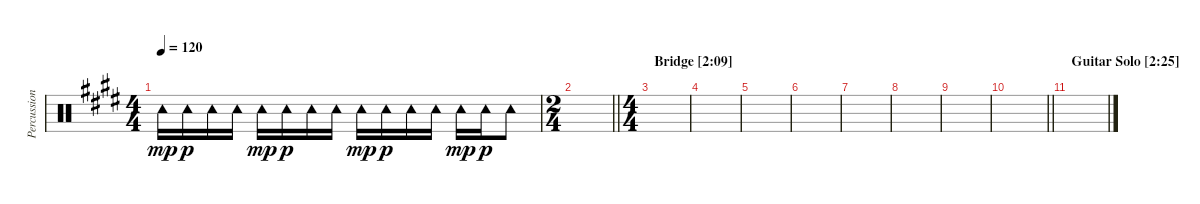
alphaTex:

\track ("Percussion" "Percussion") {instrument percussion}
\staff {score}
\articulation defaults
\ts (4 4)
\tempo 120
\clef neutral
\ks c#minor "Tambourine (hit)".16{dy mp} "Tambourine (hit)".16{dy p} "Tambourine (hit)".16 "Tambourine (hit)".16 "Tambourine (hit)".16{dy mp} "Tambourine (hit)".16{dy p} "Tambourine (hit)".16 "Tambourine (hit)".16 "Tambourine (hit)".16{dy mp} "Tambourine (hit)".16{dy p} "Tambourine (hit)".16 "Tambourine (hit)".16 "Tambourine (hit)".16{dy mp} "Tambourine (hit)".16{dy p} "Tambourine (hit)".8
|
\ts (2 4)
\barLineRight lightlight
|
\ts (4 4)
\section ("" "Bridge [2:09]")
|
|
|
|
|
|
|
\barLineRight lightlight
|
\section ("" "Guitar Solo [2:25]")
